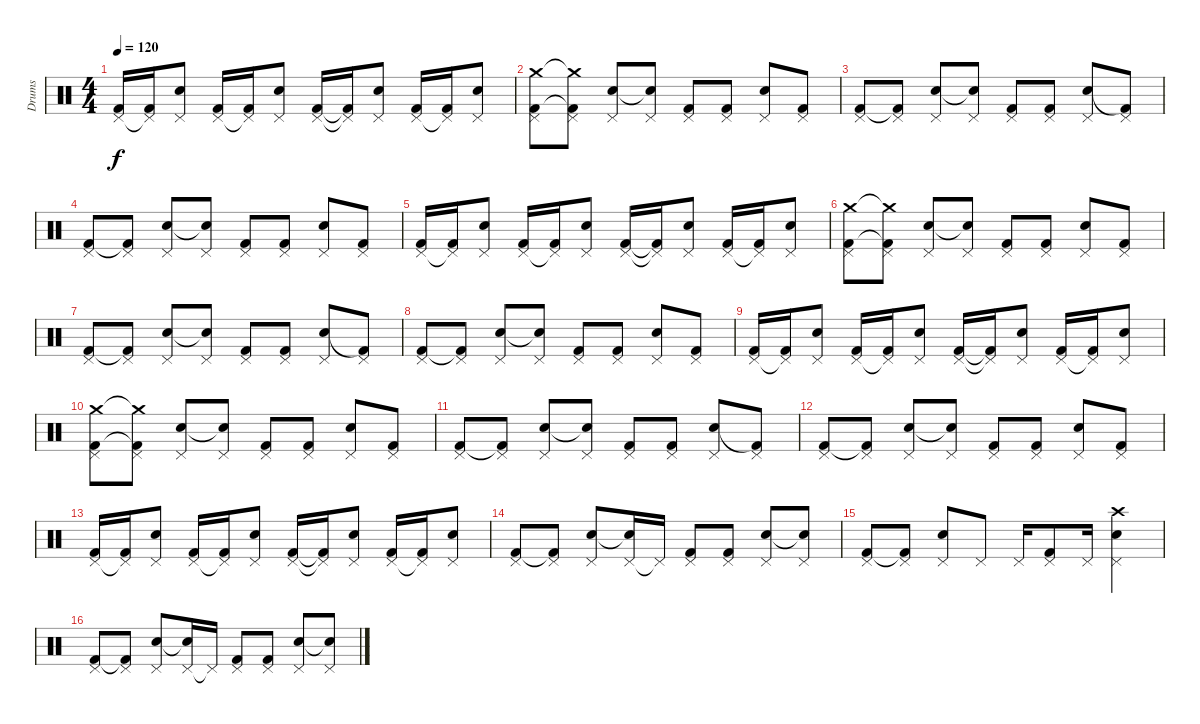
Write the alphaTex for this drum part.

\track ("Drums" "Drums") {instrument percussion}
\staff {score}
\articulation defaults
\ts (4 4)
\tempo 120
\clef neutral
\ks c
("Pedal Hi-Hat (hit)" "Kick (hit) 2").16{dy f} ("Pedal Hi-Hat (hit)"{t} "Kick (hit) 2").16 ("Pedal Hi-Hat (hit)" "Snare (hit) 2").8 ("Pedal Hi-Hat (hit)" "Kick (hit) 2").16 ("Pedal Hi-Hat (hit)"{t} "Kick (hit) 2").16 ("Pedal Hi-Hat (hit)" "Snare (hit) 2").8 ("Pedal Hi-Hat (hit)" "Kick (hit) 2").16 ("Pedal Hi-Hat (hit)"{t} "Kick (hit) 2"{t}).16 ("Pedal Hi-Hat (hit)" "Snare (hit) 2").8 ("Pedal Hi-Hat (hit)" "Kick (hit) 2").16 ("Pedal Hi-Hat (hit)"{t} "Kick (hit) 2").16 ("Pedal Hi-Hat (hit)" "Snare (hit) 2").8 |
("Pedal Hi-Hat (hit)" "Crash medium (hit)" "Kick (hit) 2").8 ("Pedal Hi-Hat (hit)" "Crash medium (hit)"{t} "Kick (hit) 2"{t}).8 ("Pedal Hi-Hat (hit)" "Snare (hit) 2").8 ("Pedal Hi-Hat (hit)" "Snare (hit) 2"{t}).8 ("Pedal Hi-Hat (hit)" "Kick (hit) 2").8 ("Pedal Hi-Hat (hit)" "Kick (hit) 2").8 ("Pedal Hi-Hat (hit)" "Snare (hit) 2").8 ("Pedal Hi-Hat (hit)" "Kick (hit) 2").8 |
("Pedal Hi-Hat (hit)" "Kick (hit) 2").8 ("Pedal Hi-Hat (hit)" "Kick (hit) 2"{t}).8 ("Pedal Hi-Hat (hit)" "Snare (hit) 2").8 ("Pedal Hi-Hat (hit)" "Snare (hit) 2"{t}).8 ("Pedal Hi-Hat (hit)" "Kick (hit) 2").8 ("Pedal Hi-Hat (hit)" "Kick (hit) 2").8 ("Pedal Hi-Hat (hit)" "Snare (hit) 2").8 ("Pedal Hi-Hat (hit)" "Kick (hit) 2"{t}).8 |
("Pedal Hi-Hat (hit)" "Kick (hit) 2").8 ("Pedal Hi-Hat (hit)" "Kick (hit) 2"{t}).8 ("Pedal Hi-Hat (hit)" "Snare (hit) 2").8 ("Pedal Hi-Hat (hit)" "Snare (hit) 2"{t}).8 ("Pedal Hi-Hat (hit)" "Kick (hit) 2").8 ("Pedal Hi-Hat (hit)" "Kick (hit) 2").8 ("Pedal Hi-Hat (hit)" "Snare (hit) 2").8 ("Pedal Hi-Hat (hit)" "Kick (hit) 2").8 |
("Pedal Hi-Hat (hit)" "Kick (hit) 2").16 ("Pedal Hi-Hat (hit)"{t} "Kick (hit) 2").16 ("Pedal Hi-Hat (hit)" "Snare (hit) 2").8 ("Pedal Hi-Hat (hit)" "Kick (hit) 2").16 ("Pedal Hi-Hat (hit)"{t} "Kick (hit) 2").16 ("Pedal Hi-Hat (hit)" "Snare (hit) 2").8 ("Pedal Hi-Hat (hit)" "Kick (hit) 2").16 ("Pedal Hi-Hat (hit)"{t} "Kick (hit) 2"{t}).16 ("Pedal Hi-Hat (hit)" "Snare (hit) 2").8 ("Pedal Hi-Hat (hit)" "Kick (hit) 2").16 ("Pedal Hi-Hat (hit)"{t} "Kick (hit) 2").16 ("Pedal Hi-Hat (hit)" "Snare (hit) 2").8 |
("Pedal Hi-Hat (hit)" "Crash medium (hit)" "Kick (hit) 2").8 ("Pedal Hi-Hat (hit)" "Crash medium (hit)"{t} "Kick (hit) 2"{t}).8 ("Pedal Hi-Hat (hit)" "Snare (hit) 2").8 ("Pedal Hi-Hat (hit)" "Snare (hit) 2"{t}).8 ("Pedal Hi-Hat (hit)" "Kick (hit) 2").8 ("Pedal Hi-Hat (hit)" "Kick (hit) 2").8 ("Pedal Hi-Hat (hit)" "Snare (hit) 2").8 ("Pedal Hi-Hat (hit)" "Kick (hit) 2").8 |
("Pedal Hi-Hat (hit)" "Kick (hit) 2").8 ("Pedal Hi-Hat (hit)" "Kick (hit) 2"{t}).8 ("Pedal Hi-Hat (hit)" "Snare (hit) 2").8 ("Pedal Hi-Hat (hit)" "Snare (hit) 2"{t}).8 ("Pedal Hi-Hat (hit)" "Kick (hit) 2").8 ("Pedal Hi-Hat (hit)" "Kick (hit) 2").8 ("Pedal Hi-Hat (hit)" "Snare (hit) 2").8 ("Pedal Hi-Hat (hit)" "Kick (hit) 2"{t}).8 |
("Pedal Hi-Hat (hit)" "Kick (hit) 2").8 ("Pedal Hi-Hat (hit)" "Kick (hit) 2"{t}).8 ("Pedal Hi-Hat (hit)" "Snare (hit) 2").8 ("Pedal Hi-Hat (hit)" "Snare (hit) 2"{t}).8 ("Pedal Hi-Hat (hit)" "Kick (hit) 2").8 ("Pedal Hi-Hat (hit)" "Kick (hit) 2").8 ("Pedal Hi-Hat (hit)" "Snare (hit) 2").8 ("Pedal Hi-Hat (hit)" "Kick (hit) 2").8 |
("Pedal Hi-Hat (hit)" "Kick (hit) 2").16 ("Pedal Hi-Hat (hit)"{t} "Kick (hit) 2").16 ("Pedal Hi-Hat (hit)" "Snare (hit) 2").8 ("Pedal Hi-Hat (hit)" "Kick (hit) 2").16 ("Pedal Hi-Hat (hit)"{t} "Kick (hit) 2").16 ("Pedal Hi-Hat (hit)" "Snare (hit) 2").8 ("Pedal Hi-Hat (hit)" "Kick (hit) 2").16 ("Pedal Hi-Hat (hit)"{t} "Kick (hit) 2"{t}).16 ("Pedal Hi-Hat (hit)" "Snare (hit) 2").8 ("Pedal Hi-Hat (hit)" "Kick (hit) 2").16 ("Pedal Hi-Hat (hit)"{t} "Kick (hit) 2").16 ("Pedal Hi-Hat (hit)" "Snare (hit) 2").8 |
("Pedal Hi-Hat (hit)" "Crash medium (hit)" "Kick (hit) 2").8 ("Pedal Hi-Hat (hit)" "Crash medium (hit)"{t} "Kick (hit) 2"{t}).8 ("Pedal Hi-Hat (hit)" "Snare (hit) 2").8 ("Pedal Hi-Hat (hit)" "Snare (hit) 2"{t}).8 ("Pedal Hi-Hat (hit)" "Kick (hit) 2").8 ("Pedal Hi-Hat (hit)" "Kick (hit) 2").8 ("Pedal Hi-Hat (hit)" "Snare (hit) 2").8 ("Pedal Hi-Hat (hit)" "Kick (hit) 2").8 |
("Pedal Hi-Hat (hit)" "Kick (hit) 2").8 ("Pedal Hi-Hat (hit)" "Kick (hit) 2"{t}).8 ("Pedal Hi-Hat (hit)" "Snare (hit) 2").8 ("Pedal Hi-Hat (hit)" "Snare (hit) 2"{t}).8 ("Pedal Hi-Hat (hit)" "Kick (hit) 2").8 ("Pedal Hi-Hat (hit)" "Kick (hit) 2").8 ("Pedal Hi-Hat (hit)" "Snare (hit) 2").8 ("Pedal Hi-Hat (hit)" "Kick (hit) 2"{t}).8 |
("Pedal Hi-Hat (hit)" "Kick (hit) 2").8 ("Pedal Hi-Hat (hit)" "Kick (hit) 2"{t}).8 ("Pedal Hi-Hat (hit)" "Snare (hit) 2").8 ("Pedal Hi-Hat (hit)" "Snare (hit) 2"{t}).8 ("Pedal Hi-Hat (hit)" "Kick (hit) 2").8 ("Pedal Hi-Hat (hit)" "Kick (hit) 2").8 ("Pedal Hi-Hat (hit)" "Snare (hit) 2").8 ("Pedal Hi-Hat (hit)" "Kick (hit) 2").8 |
("Pedal Hi-Hat (hit)" "Kick (hit) 2").16 ("Pedal Hi-Hat (hit)"{t} "Kick (hit) 2").16 ("Pedal Hi-Hat (hit)" "Snare (hit) 2").8 ("Pedal Hi-Hat (hit)" "Kick (hit) 2").16 ("Pedal Hi-Hat (hit)"{t} "Kick (hit) 2").16 ("Pedal Hi-Hat (hit)" "Snare (hit) 2").8 ("Pedal Hi-Hat (hit)" "Kick (hit) 2").16 ("Pedal Hi-Hat (hit)"{t} "Kick (hit) 2"{t}).16 ("Pedal Hi-Hat (hit)" "Snare (hit) 2").8 ("Pedal Hi-Hat (hit)" "Kick (hit) 2").16 ("Pedal Hi-Hat (hit)"{t} "Kick (hit) 2").16 ("Pedal Hi-Hat (hit)" "Snare (hit) 2").8 |
("Pedal Hi-Hat (hit)" "Kick (hit) 2").8 ("Pedal Hi-Hat (hit)" "Kick (hit) 2"{t}).8 ("Pedal Hi-Hat (hit)" "Snare (hit) 2").8 ("Pedal Hi-Hat (hit)" "Snare (hit) 2"{t}).16 "Pedal Hi-Hat (hit)"{t}.16 ("Pedal Hi-Hat (hit)" "Kick (hit) 2").8 ("Pedal Hi-Hat (hit)" "Kick (hit) 2").8 ("Pedal Hi-Hat (hit)" "Snare (hit) 2").8 ("Pedal Hi-Hat (hit)" "Snare (hit) 2"{t}).8 |
("Pedal Hi-Hat (hit)" "Kick (hit) 2").8 ("Pedal Hi-Hat (hit)" "Kick (hit) 2"{t}).8 ("Pedal Hi-Hat (hit)" "Snare (hit) 2").8 "Pedal Hi-Hat (hit)".8 "Pedal Hi-Hat (hit)".16 ("Pedal Hi-Hat (hit)" "Kick (hit) 2").8 "Pedal Hi-Hat (hit)".16 ("Pedal Hi-Hat (hit)" "Crash high (hit)" "Snare (hit) 2").4 |
("Pedal Hi-Hat (hit)" "Kick (hit) 2").8 ("Pedal Hi-Hat (hit)" "Kick (hit) 2"{t}).8 ("Pedal Hi-Hat (hit)" "Snare (hit) 2").8 ("Pedal Hi-Hat (hit)" "Snare (hit) 2"{t}).16 "Pedal Hi-Hat (hit)"{t}.16 ("Pedal Hi-Hat (hit)" "Kick (hit) 2").8 ("Pedal Hi-Hat (hit)" "Kick (hit) 2").8 ("Pedal Hi-Hat (hit)" "Snare (hit) 2").8 ("Pedal Hi-Hat (hit)" "Snare (hit) 2"{t}).8
